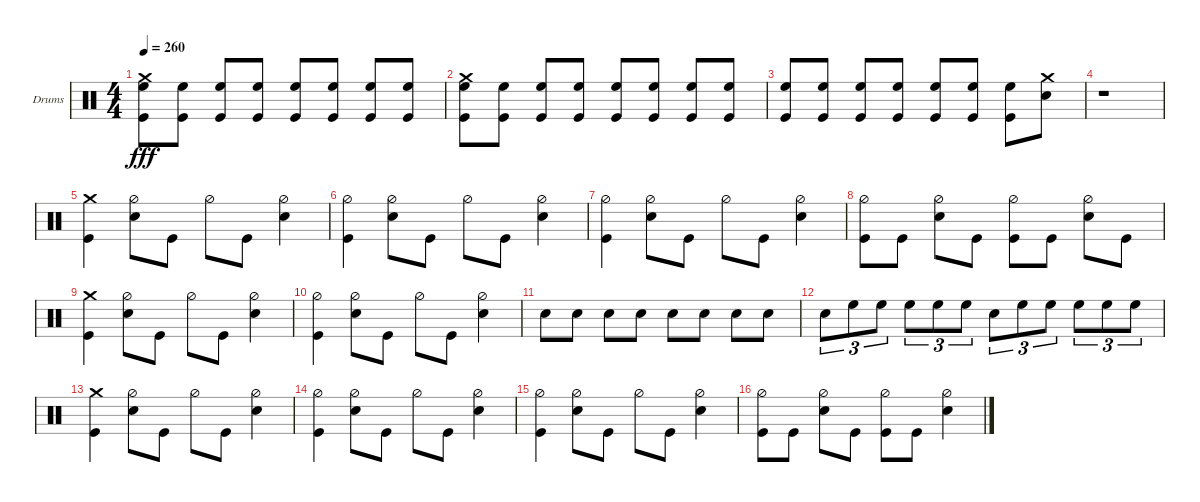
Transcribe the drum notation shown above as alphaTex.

\defaultSystemsLayout 4
\bracketExtendMode groupsimilarinstruments
\firstSystemTrackNameOrientation horizontal
\otherSystemsTrackNameOrientation horizontal
\track ("Stefan Schwarzmann" "Drums") {instrument percussion}
\staff {score}
\articulation defaults
\ts (4 4)
\tempo 260
\clef neutral
\ks c
("Kick (hit)" "High Floor Tom (hit)" "Crash medium (hit)").8{dy fff} ("Kick (hit)" "High Floor Tom (hit)").8 ("Kick (hit)" "High Floor Tom (hit)").8 ("Kick (hit)" "High Floor Tom (hit)").8 ("Kick (hit)" "High Floor Tom (hit)").8 ("Kick (hit)" "High Floor Tom (hit)").8 ("Kick (hit)" "High Floor Tom (hit)").8 ("Kick (hit)" "High Floor Tom (hit)").8 |
("Kick (hit)" "High Floor Tom (hit)" "Crash medium (hit)").8 ("Kick (hit)" "High Floor Tom (hit)").8 ("Kick (hit)" "High Floor Tom (hit)").8 ("Kick (hit)" "High Floor Tom (hit)").8 ("Kick (hit)" "High Floor Tom (hit)").8 ("Kick (hit)" "High Floor Tom (hit)").8 ("Kick (hit)" "High Floor Tom (hit)").8 ("Kick (hit)" "High Floor Tom (hit)").8 |
("Kick (hit)" "High Floor Tom (hit)").8 ("Kick (hit)" "High Floor Tom (hit)").8 ("Kick (hit)" "High Floor Tom (hit)").8 ("Kick (hit)" "High Floor Tom (hit)").8 ("Kick (hit)" "High Floor Tom (hit)").8 ("Kick (hit)" "High Floor Tom (hit)").8 ("Kick (hit)" "High Floor Tom (hit)").8 ("Snare (hit) 2" "Crash medium (hit)").8 |
r.1 |
("Kick (hit)" "Crash medium (hit)").4 ("Snare (hit) 2" "Hi-Hat (half)").8 "Kick (hit)".8 "Hi-Hat (half)".8 "Kick (hit)".8 ("Snare (hit) 2" "Hi-Hat (half)").4 |
("Kick (hit)" "Hi-Hat (half)").4 ("Snare (hit) 2" "Hi-Hat (half)").8 "Kick (hit)".8 "Hi-Hat (half)".8 "Kick (hit)".8 ("Snare (hit) 2" "Hi-Hat (half)").4 |
("Kick (hit)" "Hi-Hat (half)").4 ("Snare (hit) 2" "Hi-Hat (half)").8 "Kick (hit)".8 "Hi-Hat (half)".8 "Kick (hit)".8 ("Snare (hit) 2" "Hi-Hat (half)").4 |
("Kick (hit)" "Hi-Hat (half)").8 "Kick (hit)".8 ("Snare (hit) 2" "Hi-Hat (half)").8 "Kick (hit)".8 ("Kick (hit)" "Hi-Hat (half)").8 "Kick (hit)".8 ("Snare (hit) 2" "Hi-Hat (half)").8 "Kick (hit)".8 |
("Kick (hit)" "Crash medium (hit)").4 ("Snare (hit) 2" "Hi-Hat (half)").8 "Kick (hit)".8 "Hi-Hat (half)".8 "Kick (hit)".8 ("Snare (hit) 2" "Hi-Hat (half)").4 |
("Kick (hit)" "Hi-Hat (half)").4 ("Snare (hit) 2" "Hi-Hat (half)").8 "Kick (hit)".8 "Hi-Hat (half)".8 "Kick (hit)".8 ("Snare (hit) 2" "Hi-Hat (half)").4 |
"Snare (hit) 2".8 "Snare (hit) 2".8 "Snare (hit) 2".8 "Snare (hit) 2".8 "Snare (hit) 2".8 "Snare (hit) 2".8 "Snare (hit) 2".8 "Snare (hit) 2".8 |
"Snare (hit) 2".8{tu (3 2)} "High Floor Tom (hit)".8{tu (3 2)} "High Floor Tom (hit)".8{tu (3 2)} "High Floor Tom (hit)".8{tu (3 2)} "High Floor Tom (hit)".8{tu (3 2)} "High Floor Tom (hit)".8{tu (3 2)} "Snare (hit) 2".8{tu (3 2)} "High Floor Tom (hit)".8{tu (3 2)} "High Floor Tom (hit)".8{tu (3 2)} "High Floor Tom (hit)".8{tu (3 2)} "High Floor Tom (hit)".8{tu (3 2)} "High Floor Tom (hit)".8{tu (3 2)} |
("Kick (hit)" "Crash medium (hit)").4 ("Snare (hit) 2" "Hi-Hat (half)").8 "Kick (hit)".8 "Hi-Hat (half)".8 "Kick (hit)".8 ("Snare (hit) 2" "Hi-Hat (half)").4 |
("Kick (hit)" "Hi-Hat (half)").4 ("Snare (hit) 2" "Hi-Hat (half)").8 "Kick (hit)".8 "Hi-Hat (half)".8 "Kick (hit)".8 ("Snare (hit) 2" "Hi-Hat (half)").4 |
("Kick (hit)" "Hi-Hat (half)").4 ("Snare (hit) 2" "Hi-Hat (half)").8 "Kick (hit)".8 "Hi-Hat (half)".8 "Kick (hit)".8 ("Snare (hit) 2" "Hi-Hat (half)").4 |
("Kick (hit)" "Hi-Hat (half)").8 "Kick (hit)".8 ("Snare (hit) 2" "Hi-Hat (half)").8 "Kick (hit)".8 ("Kick (hit)" "Hi-Hat (half)").8 "Kick (hit)".8 ("Snare (hit) 2" "Hi-Hat (half)").4
